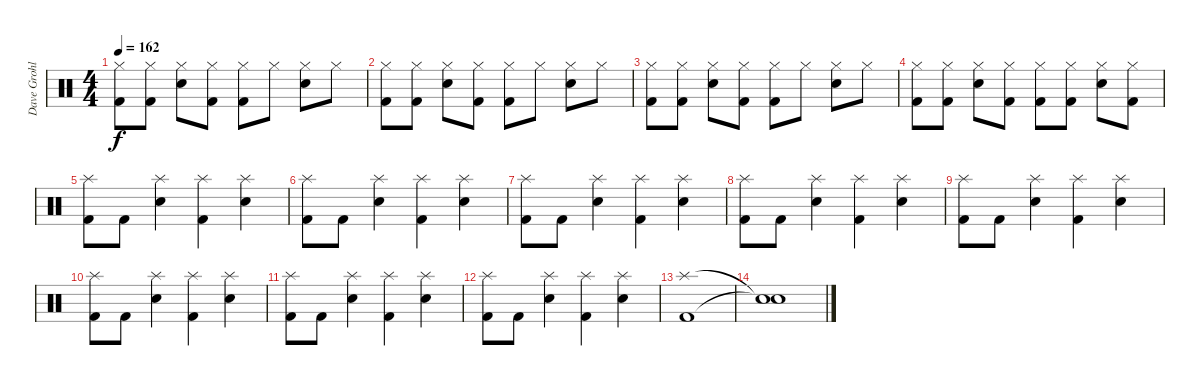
\track ("Dave Grohl : Drums" "Dave Grohl") {instrument percussion}
\staff {score}
\articulation defaults
\ts (4 4)
\tempo 162
\clef neutral
\ks c
("Hi-Hat (closed)" "Kick (hit) 2").8{dy f} ("Hi-Hat (closed)" "Kick (hit) 2").8 ("Hi-Hat (closed)" "Snare (hit) 2").8 ("Hi-Hat (closed)" "Kick (hit) 2").8 ("Hi-Hat (closed)" "Kick (hit) 2").8 "Hi-Hat (closed)".8 ("Hi-Hat (closed)" "Snare (hit) 2").8 "Hi-Hat (closed)".8 |
("Hi-Hat (closed)" "Kick (hit) 2").8 ("Hi-Hat (closed)" "Kick (hit) 2").8 ("Hi-Hat (closed)" "Snare (hit) 2").8 ("Hi-Hat (closed)" "Kick (hit) 2").8 ("Hi-Hat (closed)" "Kick (hit) 2").8 "Hi-Hat (closed)".8 ("Hi-Hat (closed)" "Snare (hit) 2").8 "Hi-Hat (closed)".8 |
("Hi-Hat (closed)" "Kick (hit) 2").8 ("Hi-Hat (closed)" "Kick (hit) 2").8 ("Hi-Hat (closed)" "Snare (hit) 2").8 ("Hi-Hat (closed)" "Kick (hit) 2").8 ("Hi-Hat (closed)" "Kick (hit) 2").8 "Hi-Hat (closed)".8 ("Hi-Hat (closed)" "Snare (hit) 2").8 "Hi-Hat (closed)".8 |
("Hi-Hat (closed)" "Kick (hit) 2").8 ("Hi-Hat (closed)" "Kick (hit) 2").8 ("Hi-Hat (closed)" "Snare (hit) 2").8 ("Hi-Hat (closed)" "Kick (hit) 2").8 ("Hi-Hat (closed)" "Kick (hit) 2").8 ("Hi-Hat (closed)" "Kick (hit) 2").8 ("Hi-Hat (closed)" "Snare (hit) 2").8 ("Hi-Hat (closed)" "Kick (hit) 2").8 |
("Splash (hit)" "Kick (hit) 2").8 "Kick (hit) 2".8 ("Splash (hit)" "Snare (hit) 2").4 ("Splash (hit)" "Kick (hit) 2").4 ("Splash (hit)" "Snare (hit) 2").4 |
("Splash (hit)" "Kick (hit) 2").8 "Kick (hit) 2".8 ("Splash (hit)" "Snare (hit) 2").4 ("Splash (hit)" "Kick (hit) 2").4 ("Splash (hit)" "Snare (hit) 2").4 |
("Splash (hit)" "Kick (hit) 2").8 "Kick (hit) 2".8 ("Splash (hit)" "Snare (hit) 2").4 ("Splash (hit)" "Kick (hit) 2").4 ("Splash (hit)" "Snare (hit) 2").4 |
("Splash (hit)" "Kick (hit) 2").8 "Kick (hit) 2".8 ("Splash (hit)" "Snare (hit) 2").4 ("Splash (hit)" "Kick (hit) 2").4 ("Splash (hit)" "Snare (hit) 2").4 |
("Splash (hit)" "Kick (hit) 2").8 "Kick (hit) 2".8 ("Splash (hit)" "Snare (hit) 2").4 ("Splash (hit)" "Kick (hit) 2").4 ("Splash (hit)" "Snare (hit) 2").4 |
("Splash (hit)" "Kick (hit) 2").8 "Kick (hit) 2".8 ("Splash (hit)" "Snare (hit) 2").4 ("Splash (hit)" "Kick (hit) 2").4 ("Splash (hit)" "Snare (hit) 2").4 |
("Splash (hit)" "Kick (hit) 2").8 "Kick (hit) 2".8 ("Splash (hit)" "Snare (hit) 2").4 ("Splash (hit)" "Kick (hit) 2").4 ("Splash (hit)" "Snare (hit) 2").4 |
("Splash (hit)" "Kick (hit) 2").8 "Kick (hit) 2".8 ("Splash (hit)" "Snare (hit) 2").4 ("Splash (hit)" "Kick (hit) 2").4 ("Splash (hit)" "Snare (hit) 2").4 |
("Splash (hit)" "Kick (hit) 2").1 |
("Snare (hit)"{t} "Snare (hit)"{t}).1
